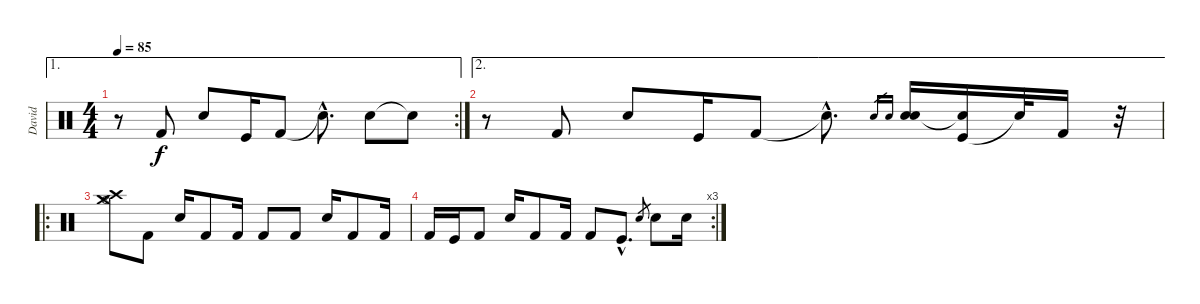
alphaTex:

\track ("David" "David") {instrument percussion}
\staff {score}
\articulation defaults
\ae 1
\rc 2
\ts (4 4)
\tempo 85
\clef neutral
\ks c
r.8{dy f} "Kick (hit) 2".8 "Snare (hit) 2".8 "Kick (hit)".16 "Kick (hit) 2".8 "Snare (hit)"{hac t}.8{d} "Snare (hit) 2".8 "Snare (hit)"{t}.8 |
\ae 2
r.8 "Kick (hit) 2".8 "Snare (hit) 2".8 "Kick (hit)".16 "Kick (hit) 2".8 "Snare (hit)"{hac t}.8{d} "Snare (hit) 2".16{gr} "Snare (hit) 2".16{gr} ("Snare (hit) 2" "Snare (hit) 2").16 ("Kick (hit)" "Snare (hit)"{t}).16 "Snare (hit)"{t}.32 "Kick (hit) 2".16 r.32 |
\ro
("Crash medium (hit)" "Crash high (hit)" "Hi-Hat (open)").8 "Kick (hit) 2".8 "Snare (hit) 2".16 "Kick (hit) 2".8 "Kick (hit) 2".16 "Kick (hit) 2".8 "Kick (hit) 2".8 "Snare (hit) 2".16 "Kick (hit) 2".8 "Kick (hit) 2".16 |
\rc 3 "Kick (hit) 2".16 "Kick (hit)".16 "Kick (hit) 2".8 "Snare (hit) 2".16 "Kick (hit) 2".8 "Kick (hit) 2".16 "Kick (hit) 2".8 "Kick (hit)"{hac}.8{d} "Snare (hit) 2".8{gr} "Snare (hit) 2".8 "Snare (hit) 2".16
